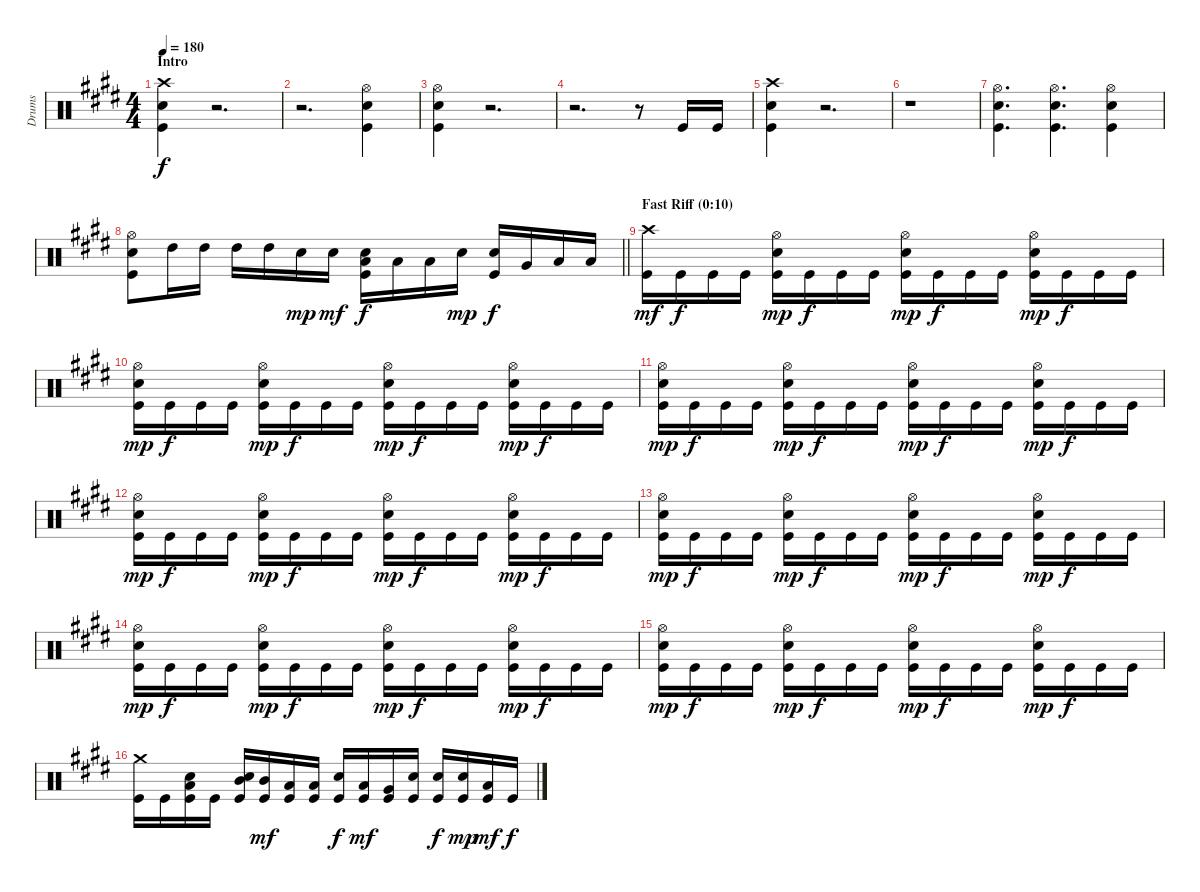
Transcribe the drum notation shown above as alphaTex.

\track ("Drums" "Drums") {instrument percussion}
\staff {score}
\articulation defaults
\ts (4 4)
\section ("" "Intro")
\tempo 180
\clef neutral
\ks c#minor
("Crash high (hit)" "Snare (hit) 2" "Kick (hit)").4{dy f} r.2{d} |
r.2{d} ("Hi-Hat (open)" "Snare (hit) 2" "Kick (hit)").4 |
("Hi-Hat (open)" "Snare (hit) 2" "Kick (hit)").4 r.2{d} |
r.2{d} r.8 "Kick (hit)".16 "Kick (hit)".16 |
("Crash high (hit)" "Snare (hit) 2" "Kick (hit)").4 r.2{d} |
r.1 |
("Hi-Hat (open)" "Snare (hit) 2" "Kick (hit)").4{d} ("Hi-Hat (open)" "Snare (hit) 2" "Kick (hit)").4{d} ("Hi-Hat (open)" "Snare (hit) 2" "Kick (hit)").4 |
\barLineRight lightlight
("Hi-Hat (open)" "Snare (hit) 2" "Kick (hit)").8 "High Tom (hit)".16 "High Tom (hit)".16 "High Tom (hit)".16 "High Tom (hit)".16 "Snare (hit) 2".16{dy mp} "Snare (hit) 2".16{dy mf} ("Low Tom (hit)" "Snare (hit) 2" "Kick (hit)").16{dy f} "Low Tom (hit)".16 "Low Tom (hit)".16 "Snare (hit) 2".16{dy mp} ("Snare (hit) 2" "Kick (hit)").16{dy f} "Very Low Tom (hit)".16 "Low Floor Tom (hit)".16 "Low Floor Tom (hit)".16 |
\section ("" "Fast Riff (0:10)")
("Crash high (hit)" "Kick (hit)").16{dy mf} "Kick (hit)".16{dy f} "Kick (hit)".16 "Kick (hit)".16 ("Hi-Hat (open)" "Snare (hit) 2" "Kick (hit)").16{dy mp} "Kick (hit)".16{dy f} "Kick (hit)".16 "Kick (hit)".16 ("Hi-Hat (open)" "Snare (hit) 2" "Kick (hit)").16{dy mp} "Kick (hit)".16{dy f} "Kick (hit)".16 "Kick (hit)".16 ("Hi-Hat (open)" "Snare (hit) 2" "Kick (hit)").16{dy mp} "Kick (hit)".16{dy f} "Kick (hit)".16 "Kick (hit)".16 |
("Hi-Hat (open)" "Snare (hit) 2" "Kick (hit)").16{dy mp} "Kick (hit)".16{dy f} "Kick (hit)".16 "Kick (hit)".16 ("Hi-Hat (open)" "Snare (hit) 2" "Kick (hit)").16{dy mp} "Kick (hit)".16{dy f} "Kick (hit)".16 "Kick (hit)".16 ("Hi-Hat (open)" "Snare (hit) 2" "Kick (hit)").16{dy mp} "Kick (hit)".16{dy f} "Kick (hit)".16 "Kick (hit)".16 ("Hi-Hat (open)" "Snare (hit) 2" "Kick (hit)").16{dy mp} "Kick (hit)".16{dy f} "Kick (hit)".16 "Kick (hit)".16 |
("Hi-Hat (open)" "Snare (hit) 2" "Kick (hit)").16{dy mp} "Kick (hit)".16{dy f} "Kick (hit)".16 "Kick (hit)".16 ("Hi-Hat (open)" "Snare (hit) 2" "Kick (hit)").16{dy mp} "Kick (hit)".16{dy f} "Kick (hit)".16 "Kick (hit)".16 ("Hi-Hat (open)" "Snare (hit) 2" "Kick (hit)").16{dy mp} "Kick (hit)".16{dy f} "Kick (hit)".16 "Kick (hit)".16 ("Hi-Hat (open)" "Snare (hit) 2" "Kick (hit)").16{dy mp} "Kick (hit)".16{dy f} "Kick (hit)".16 "Kick (hit)".16 |
("Hi-Hat (open)" "Snare (hit) 2" "Kick (hit)").16{dy mp} "Kick (hit)".16{dy f} "Kick (hit)".16 "Kick (hit)".16 ("Hi-Hat (open)" "Snare (hit) 2" "Kick (hit)").16{dy mp} "Kick (hit)".16{dy f} "Kick (hit)".16 "Kick (hit)".16 ("Hi-Hat (open)" "Snare (hit) 2" "Kick (hit)").16{dy mp} "Kick (hit)".16{dy f} "Kick (hit)".16 "Kick (hit)".16 ("Hi-Hat (open)" "Snare (hit) 2" "Kick (hit)").16{dy mp} "Kick (hit)".16{dy f} "Kick (hit)".16 "Kick (hit)".16 |
("Hi-Hat (open)" "Snare (hit) 2" "Kick (hit)").16{dy mp} "Kick (hit)".16{dy f} "Kick (hit)".16 "Kick (hit)".16 ("Hi-Hat (open)" "Snare (hit) 2" "Kick (hit)").16{dy mp} "Kick (hit)".16{dy f} "Kick (hit)".16 "Kick (hit)".16 ("Hi-Hat (open)" "Snare (hit) 2" "Kick (hit)").16{dy mp} "Kick (hit)".16{dy f} "Kick (hit)".16 "Kick (hit)".16 ("Hi-Hat (open)" "Snare (hit) 2" "Kick (hit)").16{dy mp} "Kick (hit)".16{dy f} "Kick (hit)".16 "Kick (hit)".16 |
("Hi-Hat (open)" "Snare (hit) 2" "Kick (hit)").16{dy mp} "Kick (hit)".16{dy f} "Kick (hit)".16 "Kick (hit)".16 ("Hi-Hat (open)" "Snare (hit) 2" "Kick (hit)").16{dy mp} "Kick (hit)".16{dy f} "Kick (hit)".16 "Kick (hit)".16 ("Hi-Hat (open)" "Snare (hit) 2" "Kick (hit)").16{dy mp} "Kick (hit)".16{dy f} "Kick (hit)".16 "Kick (hit)".16 ("Hi-Hat (open)" "Snare (hit) 2" "Kick (hit)").16{dy mp} "Kick (hit)".16{dy f} "Kick (hit)".16 "Kick (hit)".16 |
("Hi-Hat (open)" "Snare (hit) 2" "Kick (hit)").16{dy mp} "Kick (hit)".16{dy f} "Kick (hit)".16 "Kick (hit)".16 ("Hi-Hat (open)" "Snare (hit) 2" "Kick (hit)").16{dy mp} "Kick (hit)".16{dy f} "Kick (hit)".16 "Kick (hit)".16 ("Hi-Hat (open)" "Snare (hit) 2" "Kick (hit)").16{dy mp} "Kick (hit)".16{dy f} "Kick (hit)".16 "Kick (hit)".16 ("Hi-Hat (open)" "Snare (hit) 2" "Kick (hit)").16{dy mp} "Kick (hit)".16{dy f} "Kick (hit)".16 "Kick (hit)".16 |
("Crash medium (hit)" "Kick (hit)").16 "Kick (hit)".16 ("Low Tom (hit)" "Snare (hit) 2" "Kick (hit)").16 "Kick (hit)".16 ("Mid Tom (hit)" "Snare (hit) 2" "Kick (hit)").16 ("Mid Tom (hit)" "Kick (hit)").16{dy mf} ("Low Tom (hit)" "Kick (hit)").16 ("Low Tom (hit)" "Kick (hit)").16 ("Snare (hit) 2" "Kick (hit)").16{dy f} ("Low Tom (hit)" "Kick (hit)").16{dy mf} ("Very Low Tom (hit)" "Kick (hit)").16 ("Snare (hit) 2" "Kick (hit)").16 ("Snare (hit) 2" "Kick (hit)").16{dy f} ("Snare (hit) 2" "Kick (hit)").16{dy mp} ("Low Floor Tom (hit)" "Kick (hit)").16{dy mf} "Kick (hit)".16{dy f}
